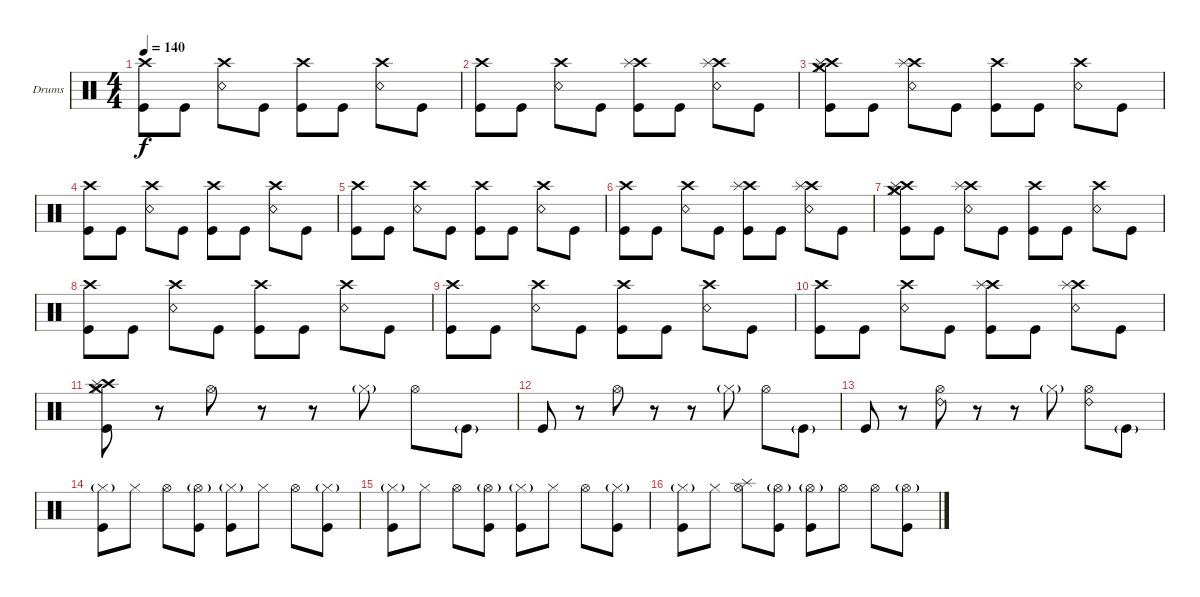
\bracketExtendMode groupsimilarinstruments
\firstSystemTrackNameOrientation horizontal
\otherSystemsTrackNameOrientation horizontal
\track ("Da Kurlzz - Drums" "Drums") {instrument percussion}
\staff {score}
\articulation defaults
\ts (4 4)
\tempo 140
\clef neutral
\ks c
("Kick (hit)" "Crash high (hit)").8{dy f} "Kick (hit)".8 ("Snare (rim shot)" "Crash high (hit)").8 "Kick (hit)".8 ("Kick (hit)" "Crash high (hit)").8 "Kick (hit)".8 ("Snare (rim shot)" "Crash high (hit)").8 "Kick (hit)".8 |
("Kick (hit)" "Crash high (hit)").8 "Kick (hit)".8 ("Snare (rim shot)" "Crash high (hit)").8 "Kick (hit)".8 ("Kick (hit)" "Crash high (hit)" "Splash (hit)").8 "Kick (hit)".8 ("Snare (rim shot)" "Crash high (hit)" "Splash (hit)").8 "Kick (hit)".8 |
("Kick (hit)" "Crash high (hit)" "Crash medium (hit)" "Hi-Hat (closed)" "Splash (hit)").8 "Kick (hit)".8 ("Snare (rim shot)" "Crash high (hit)" "Splash (hit)").8 "Kick (hit)".8 ("Kick (hit)" "Crash high (hit)").8 "Kick (hit)".8 ("Snare (rim shot)" "Crash high (hit)").8 "Kick (hit)".8 |
("Kick (hit)" "Crash high (hit)").8 "Kick (hit)".8 ("Snare (rim shot)" "Crash high (hit)").8 "Kick (hit)".8 ("Kick (hit)" "Crash high (hit)").8 "Kick (hit)".8 ("Snare (rim shot)" "Crash high (hit)").8 "Kick (hit)".8 |
("Kick (hit)" "Crash high (hit)").8 "Kick (hit)".8 ("Snare (rim shot)" "Crash high (hit)").8 "Kick (hit)".8 ("Kick (hit)" "Crash high (hit)").8 "Kick (hit)".8 ("Snare (rim shot)" "Crash high (hit)").8 "Kick (hit)".8 |
("Kick (hit)" "Crash high (hit)").8 "Kick (hit)".8 ("Snare (rim shot)" "Crash high (hit)").8 "Kick (hit)".8 ("Kick (hit)" "Crash high (hit)" "Splash (hit)").8 "Kick (hit)".8 ("Snare (rim shot)" "Crash high (hit)" "Splash (hit)").8 "Kick (hit)".8 |
("Kick (hit)" "Crash high (hit)" "Crash medium (hit)" "Hi-Hat (closed)" "Splash (hit)").8 "Kick (hit)".8 ("Snare (rim shot)" "Crash high (hit)" "Splash (hit)").8 "Kick (hit)".8 ("Kick (hit)" "Crash high (hit)").8 "Kick (hit)".8 ("Snare (rim shot)" "Crash high (hit)").8 "Kick (hit)".8 |
("Kick (hit)" "Crash high (hit)").8 "Kick (hit)".8 ("Snare (rim shot)" "Crash high (hit)").8 "Kick (hit)".8 ("Kick (hit)" "Crash high (hit)").8 "Kick (hit)".8 ("Snare (rim shot)" "Crash high (hit)").8 "Kick (hit)".8 |
("Kick (hit)" "Crash high (hit)").8 "Kick (hit)".8 ("Snare (rim shot)" "Crash high (hit)").8 "Kick (hit)".8 ("Kick (hit)" "Crash high (hit)").8 "Kick (hit)".8 ("Snare (rim shot)" "Crash high (hit)").8 "Kick (hit)".8 |
("Kick (hit)" "Crash high (hit)").8 "Kick (hit)".8 ("Snare (rim shot)" "Crash high (hit)").8 "Kick (hit)".8 ("Kick (hit)" "Crash high (hit)" "Splash (hit)").8 "Kick (hit)".8 ("Snare (rim shot)" "Crash high (hit)" "Splash (hit)").8 "Kick (hit)".8 |
("Kick (hit)" "Crash high (hit)" "Splash (hit)" "Crash medium (hit)" "Hi-Hat (closed)").8 r.8 "Hi-Hat (open)".8 r.8 r.8 "Hi-Hat (closed)"{g}.8 "Hi-Hat (open)".8 "Kick (hit)"{g}.8 |
"Kick (hit)".8 r.8 "Hi-Hat (open)".8 r.8 r.8 "Hi-Hat (closed)"{g}.8 "Hi-Hat (open)".8 "Kick (hit)"{g}.8 |
"Kick (hit)".8 r.8 ("Hi-Hat (open)" "Ride (bell) 2").8 r.8 r.8 "Hi-Hat (closed)"{g}.8 ("Hi-Hat (open)" "Ride (bell) 2").8 "Kick (hit)"{g}.8 |
("Kick (hit)" "Hi-Hat (closed)"{g}).8 "Hi-Hat (closed)".8 "Hi-Hat (open)".8 ("Kick (hit)" "Hi-Hat (open)"{g}).8 ("Kick (hit)" "Hi-Hat (closed)"{g}).8 "Hi-Hat (closed)".8 "Hi-Hat (open)".8 ("Kick (hit)" "Hi-Hat (closed)"{g}).8 |
("Kick (hit)" "Hi-Hat (closed)"{g}).8 "Hi-Hat (closed)".8 "Hi-Hat (open)".8 ("Kick (hit)" "Hi-Hat (open)"{g}).8 ("Kick (hit)" "Hi-Hat (closed)"{g}).8 "Hi-Hat (closed)".8 "Hi-Hat (open)".8 ("Kick (hit)" "Hi-Hat (closed)"{g}).8 |
("Kick (hit)" "Hi-Hat (closed)"{g}).8 "Hi-Hat (closed)".8 ("Hi-Hat (open)" "Splash (hit)").8 ("Kick (hit)" "Hi-Hat (open)"{g}).8 ("Kick (hit)" "Hi-Hat (open)"{g}).8 "Hi-Hat (open)".8 "Hi-Hat (open)".8 ("Kick (hit)" "Hi-Hat (open)"{g}).8
